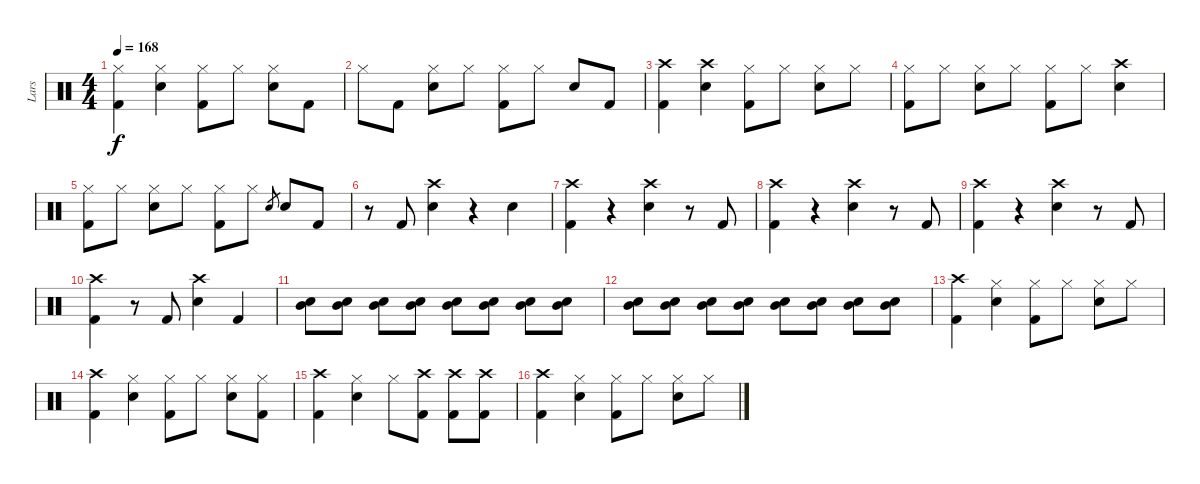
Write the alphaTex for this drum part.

\track ("Lars" "Lars") {instrument percussion}
\staff {score}
\articulation defaults
\ts (4 4)
\tempo 168
\clef neutral
\ks c
("Hi-Hat (closed)" "Kick (hit) 2").4{dy f} ("Hi-Hat (closed)" "Snare (hit) 2").4 ("Hi-Hat (closed)" "Kick (hit) 2").8 "Hi-Hat (closed)".8 ("Hi-Hat (closed)" "Snare (hit) 2").8 "Kick (hit) 2".8 |
"Hi-Hat (closed)".8 "Kick (hit) 2".8 ("Hi-Hat (closed)" "Snare (hit) 2").8 "Hi-Hat (closed)".8 ("Hi-Hat (closed)" "Kick (hit) 2").8 "Hi-Hat (closed)".8 "Snare (hit) 2".8 "Kick (hit) 2".8 |
("Crash high (hit)" "Kick (hit) 2").4 ("Crash high (hit)" "Snare (hit) 2").4 ("Hi-Hat (closed)" "Kick (hit) 2").8 "Hi-Hat (closed)".8 ("Hi-Hat (closed)" "Snare (hit) 2").8 "Hi-Hat (closed)".8 |
("Hi-Hat (closed)" "Kick (hit) 2").8 "Hi-Hat (closed)".8 ("Hi-Hat (closed)" "Snare (hit) 2").8 "Hi-Hat (closed)".8 ("Hi-Hat (closed)" "Kick (hit) 2").8 "Hi-Hat (closed)".8 ("Crash high (hit)" "Snare (hit) 2").4 |
("Hi-Hat (closed)" "Kick (hit) 2").8 "Hi-Hat (closed)".8 ("Hi-Hat (closed)" "Snare (hit) 2").8 "Hi-Hat (closed)".8 ("Hi-Hat (closed)" "Kick (hit) 2").8 "Hi-Hat (closed)".8 "Snare (hit) 2".8{gr} "Snare (hit) 2".8 "Kick (hit) 2".8 |
r.8 "Kick (hit) 2".8 ("Crash high (hit)" "Snare (hit) 2").4 r.4 "Snare (hit) 2".4 |
("Crash high (hit)" "Kick (hit) 2").4 r.4 ("Crash high (hit)" "Snare (hit) 2").4 r.8 "Kick (hit) 2".8 |
("Crash high (hit)" "Kick (hit) 2").4 r.4 ("Crash high (hit)" "Snare (hit) 2").4 r.8 "Kick (hit) 2".8 |
("Crash high (hit)" "Kick (hit) 2").4 r.4 ("Crash high (hit)" "Snare (hit) 2").4 r.8 "Kick (hit) 2".8 |
("Crash high (hit)" "Kick (hit) 2").4 r.8 "Kick (hit) 2".8 ("Crash high (hit)" "Snare (hit) 2").4 "Kick (hit) 2".4 |
("Snare (hit) 2" "Mid Tom (hit)").8 ("Snare (hit) 2" "Mid Tom (hit)").8 ("Snare (hit) 2" "Mid Tom (hit)").8 ("Snare (hit) 2" "Mid Tom (hit)").8 ("Snare (hit) 2" "Mid Tom (hit)").8 ("Snare (hit) 2" "Mid Tom (hit)").8 ("Snare (hit) 2" "Mid Tom (hit)").8 ("Snare (hit) 2" "Mid Tom (hit)").8 |
("Snare (hit) 2" "Mid Tom (hit)").8 ("Snare (hit) 2" "Mid Tom (hit)").8 ("Snare (hit) 2" "Mid Tom (hit)").8 ("Snare (hit) 2" "Mid Tom (hit)").8 ("Snare (hit) 2" "Mid Tom (hit)").8 ("Snare (hit) 2" "Mid Tom (hit)").8 ("Snare (hit) 2" "Mid Tom (hit)").8 ("Snare (hit) 2" "Mid Tom (hit)").8 |
("Crash high (hit)" "Kick (hit) 2").4 ("Hi-Hat (closed)" "Snare (hit) 2").4 ("Hi-Hat (closed)" "Kick (hit) 2").8 "Hi-Hat (closed)".8 ("Hi-Hat (closed)" "Snare (hit) 2").8 "Hi-Hat (closed)".8 |
("Crash high (hit)" "Kick (hit) 2").4 ("Hi-Hat (closed)" "Snare (hit) 2").4 ("Hi-Hat (closed)" "Kick (hit) 2").8 "Hi-Hat (closed)".8 ("Hi-Hat (closed)" "Snare (hit) 2").8 ("Hi-Hat (closed)" "Kick (hit) 2").8 |
("Crash high (hit)" "Kick (hit) 2").4 ("Hi-Hat (closed)" "Snare (hit) 2").4 "Hi-Hat (closed)".8 ("Crash high (hit)" "Kick (hit) 2").8 ("Crash high (hit)" "Kick (hit) 2").8 ("Crash high (hit)" "Kick (hit) 2").8 |
("Crash high (hit)" "Kick (hit) 2").4 ("Hi-Hat (closed)" "Snare (hit) 2").4 ("Hi-Hat (closed)" "Kick (hit) 2").8 "Hi-Hat (closed)".8 ("Hi-Hat (closed)" "Snare (hit) 2").8 "Hi-Hat (closed)".8
